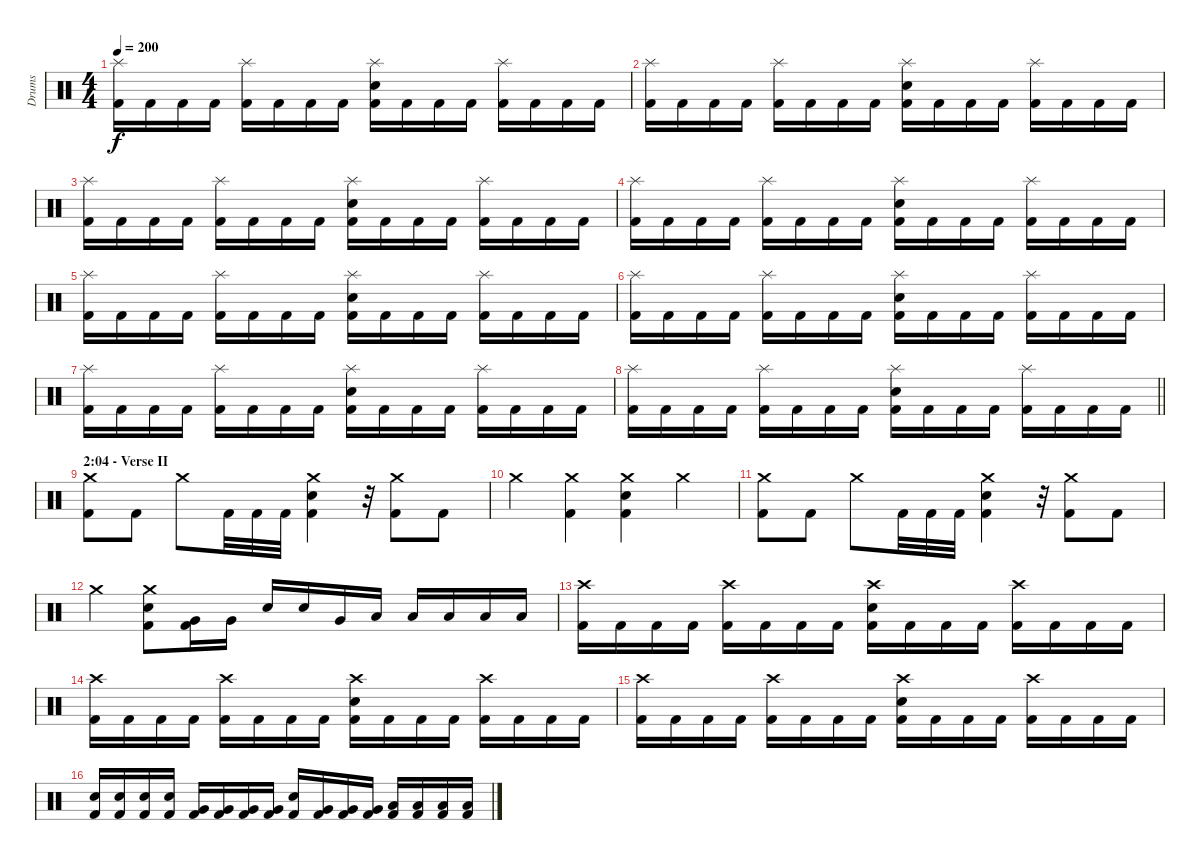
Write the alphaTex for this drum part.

\track ("Drums" "Drums") {instrument percussion}
\staff {score}
\articulation defaults
\ts (4 4)
\tempo 200
\clef neutral
\ks c
("Splash (hit)" "Kick (hit) 2").16{dy f} "Kick (hit) 2".16 "Kick (hit) 2".16 "Kick (hit) 2".16 ("Splash (hit)" "Kick (hit) 2").16 "Kick (hit) 2".16 "Kick (hit) 2".16 "Kick (hit) 2".16 ("Splash (hit)" "Electric Snare (hit)" "Kick (hit) 2").16 "Kick (hit) 2".16 "Kick (hit) 2".16 "Kick (hit) 2".16 ("Splash (hit)" "Kick (hit) 2").16 "Kick (hit) 2".16 "Kick (hit) 2".16 "Kick (hit) 2".16 |
("Splash (hit)" "Kick (hit) 2").16 "Kick (hit) 2".16 "Kick (hit) 2".16 "Kick (hit) 2".16 ("Splash (hit)" "Kick (hit) 2").16 "Kick (hit) 2".16 "Kick (hit) 2".16 "Kick (hit) 2".16 ("Splash (hit)" "Electric Snare (hit)" "Kick (hit) 2").16 "Kick (hit) 2".16 "Kick (hit) 2".16 "Kick (hit) 2".16 ("Splash (hit)" "Kick (hit) 2").16 "Kick (hit) 2".16 "Kick (hit) 2".16 "Kick (hit) 2".16 |
("Splash (hit)" "Kick (hit) 2").16 "Kick (hit) 2".16 "Kick (hit) 2".16 "Kick (hit) 2".16 ("Splash (hit)" "Kick (hit) 2").16 "Kick (hit) 2".16 "Kick (hit) 2".16 "Kick (hit) 2".16 ("Splash (hit)" "Electric Snare (hit)" "Kick (hit) 2").16 "Kick (hit) 2".16 "Kick (hit) 2".16 "Kick (hit) 2".16 ("Splash (hit)" "Kick (hit) 2").16 "Kick (hit) 2".16 "Kick (hit) 2".16 "Kick (hit) 2".16 |
("Splash (hit)" "Kick (hit) 2").16 "Kick (hit) 2".16 "Kick (hit) 2".16 "Kick (hit) 2".16 ("Splash (hit)" "Kick (hit) 2").16 "Kick (hit) 2".16 "Kick (hit) 2".16 "Kick (hit) 2".16 ("Splash (hit)" "Electric Snare (hit)" "Kick (hit) 2").16 "Kick (hit) 2".16 "Kick (hit) 2".16 "Kick (hit) 2".16 ("Splash (hit)" "Kick (hit) 2").16 "Kick (hit) 2".16 "Kick (hit) 2".16 "Kick (hit) 2".16 |
("Splash (hit)" "Kick (hit) 2").16 "Kick (hit) 2".16 "Kick (hit) 2".16 "Kick (hit) 2".16 ("Splash (hit)" "Kick (hit) 2").16 "Kick (hit) 2".16 "Kick (hit) 2".16 "Kick (hit) 2".16 ("Splash (hit)" "Electric Snare (hit)" "Kick (hit) 2").16 "Kick (hit) 2".16 "Kick (hit) 2".16 "Kick (hit) 2".16 ("Splash (hit)" "Kick (hit) 2").16 "Kick (hit) 2".16 "Kick (hit) 2".16 "Kick (hit) 2".16 |
("Splash (hit)" "Kick (hit) 2").16 "Kick (hit) 2".16 "Kick (hit) 2".16 "Kick (hit) 2".16 ("Splash (hit)" "Kick (hit) 2").16 "Kick (hit) 2".16 "Kick (hit) 2".16 "Kick (hit) 2".16 ("Splash (hit)" "Electric Snare (hit)" "Kick (hit) 2").16 "Kick (hit) 2".16 "Kick (hit) 2".16 "Kick (hit) 2".16 ("Splash (hit)" "Kick (hit) 2").16 "Kick (hit) 2".16 "Kick (hit) 2".16 "Kick (hit) 2".16 |
("Splash (hit)" "Kick (hit) 2").16 "Kick (hit) 2".16 "Kick (hit) 2".16 "Kick (hit) 2".16 ("Splash (hit)" "Kick (hit) 2").16 "Kick (hit) 2".16 "Kick (hit) 2".16 "Kick (hit) 2".16 ("Splash (hit)" "Electric Snare (hit)" "Kick (hit) 2").16 "Kick (hit) 2".16 "Kick (hit) 2".16 "Kick (hit) 2".16 ("Splash (hit)" "Kick (hit) 2").16 "Kick (hit) 2".16 "Kick (hit) 2".16 "Kick (hit) 2".16 |
\barLineRight lightlight
("Splash (hit)" "Kick (hit) 2").16 "Kick (hit) 2".16 "Kick (hit) 2".16 "Kick (hit) 2".16 ("Splash (hit)" "Kick (hit) 2").16 "Kick (hit) 2".16 "Kick (hit) 2".16 "Kick (hit) 2".16 ("Splash (hit)" "Electric Snare (hit)" "Kick (hit) 2").16 "Kick (hit) 2".16 "Kick (hit) 2".16 "Kick (hit) 2".16 ("Splash (hit)" "Kick (hit) 2").16 "Kick (hit) 2".16 "Kick (hit) 2".16 "Kick (hit) 2".16 |
\section ("" "2:04 - Verse II")
("Crash medium (hit)" "Kick (hit) 2").8 "Kick (hit) 2".8 "Crash medium (hit)".8 "Kick (hit) 2".32 "Kick (hit) 2".32 "Kick (hit) 2".32 ("Crash medium (hit)" "Electric Snare (hit)" "Kick (hit) 2").4 r.32 ("Crash medium (hit)" "Kick (hit) 2").8 "Kick (hit) 2".8 |
"Crash medium (hit)".4 ("Crash medium (hit)" "Kick (hit) 2").4 ("Crash medium (hit)" "Electric Snare (hit)" "Kick (hit) 2").4 "Crash medium (hit)".4 |
("Crash medium (hit)" "Kick (hit) 2").8 "Kick (hit) 2".8 "Crash medium (hit)".8 "Kick (hit) 2".32 "Kick (hit) 2".32 "Kick (hit) 2".32 ("Crash medium (hit)" "Electric Snare (hit)" "Kick (hit) 2").4 r.32 ("Crash medium (hit)" "Kick (hit) 2").8 "Kick (hit) 2".8 |
"Crash medium (hit)".4 ("Crash medium (hit)" "Electric Snare (hit)" "Kick (hit) 2").8 ("Very Low Tom (hit)" "Kick (hit) 2").16 "Very Low Tom (hit)".16 "Electric Snare (hit)".16 "Electric Snare (hit)".16 "Very Low Tom (hit)".16 "Low Floor Tom (hit)".16 "Low Floor Tom (hit)".16 "Low Floor Tom (hit)".16 "Low Floor Tom (hit)".16 "Low Floor Tom (hit)".16 |
("Crash high (hit)" "Kick (hit) 2").16 "Kick (hit) 2".16 "Kick (hit) 2".16 "Kick (hit) 2".16 ("Crash high (hit)" "Kick (hit) 2").16 "Kick (hit) 2".16 "Kick (hit) 2".16 "Kick (hit) 2".16 ("Crash high (hit)" "Electric Snare (hit)" "Kick (hit) 2").16 "Kick (hit) 2".16 "Kick (hit) 2".16 "Kick (hit) 2".16 ("Crash high (hit)" "Kick (hit) 2").16 "Kick (hit) 2".16 "Kick (hit) 2".16 "Kick (hit) 2".16 |
("Crash high (hit)" "Kick (hit) 2").16 "Kick (hit) 2".16 "Kick (hit) 2".16 "Kick (hit) 2".16 ("Crash high (hit)" "Kick (hit) 2").16 "Kick (hit) 2".16 "Kick (hit) 2".16 "Kick (hit) 2".16 ("Crash high (hit)" "Electric Snare (hit)" "Kick (hit) 2").16 "Kick (hit) 2".16 "Kick (hit) 2".16 "Kick (hit) 2".16 ("Crash high (hit)" "Kick (hit) 2").16 "Kick (hit) 2".16 "Kick (hit) 2".16 "Kick (hit) 2".16 |
("Crash high (hit)" "Kick (hit) 2").16 "Kick (hit) 2".16 "Kick (hit) 2".16 "Kick (hit) 2".16 ("Crash high (hit)" "Kick (hit) 2").16 "Kick (hit) 2".16 "Kick (hit) 2".16 "Kick (hit) 2".16 ("Crash high (hit)" "Electric Snare (hit)" "Kick (hit) 2").16 "Kick (hit) 2".16 "Kick (hit) 2".16 "Kick (hit) 2".16 ("Crash high (hit)" "Kick (hit) 2").16 "Kick (hit) 2".16 "Kick (hit) 2".16 "Kick (hit) 2".16 |
("Electric Snare (hit)" "Kick (hit) 2").16 ("Electric Snare (hit)" "Kick (hit) 2").16 ("Electric Snare (hit)" "Kick (hit) 2").16 ("Electric Snare (hit)" "Kick (hit) 2").16 ("Very Low Tom (hit)" "Kick (hit) 2").16 ("Very Low Tom (hit)" "Kick (hit) 2").16 ("Very Low Tom (hit)" "Kick (hit) 2").16 ("Very Low Tom (hit)" "Kick (hit) 2").16 ("Electric Snare (hit)" "Kick (hit) 2").16 ("Very Low Tom (hit)" "Kick (hit) 2").16 ("Very Low Tom (hit)" "Kick (hit) 2").16 ("Very Low Tom (hit)" "Kick (hit) 2").16 ("Low Floor Tom (hit)" "Kick (hit) 2").16 ("Low Floor Tom (hit)" "Kick (hit) 2").16 ("Low Floor Tom (hit)" "Kick (hit) 2").16 ("Low Floor Tom (hit)" "Kick (hit) 2").16
